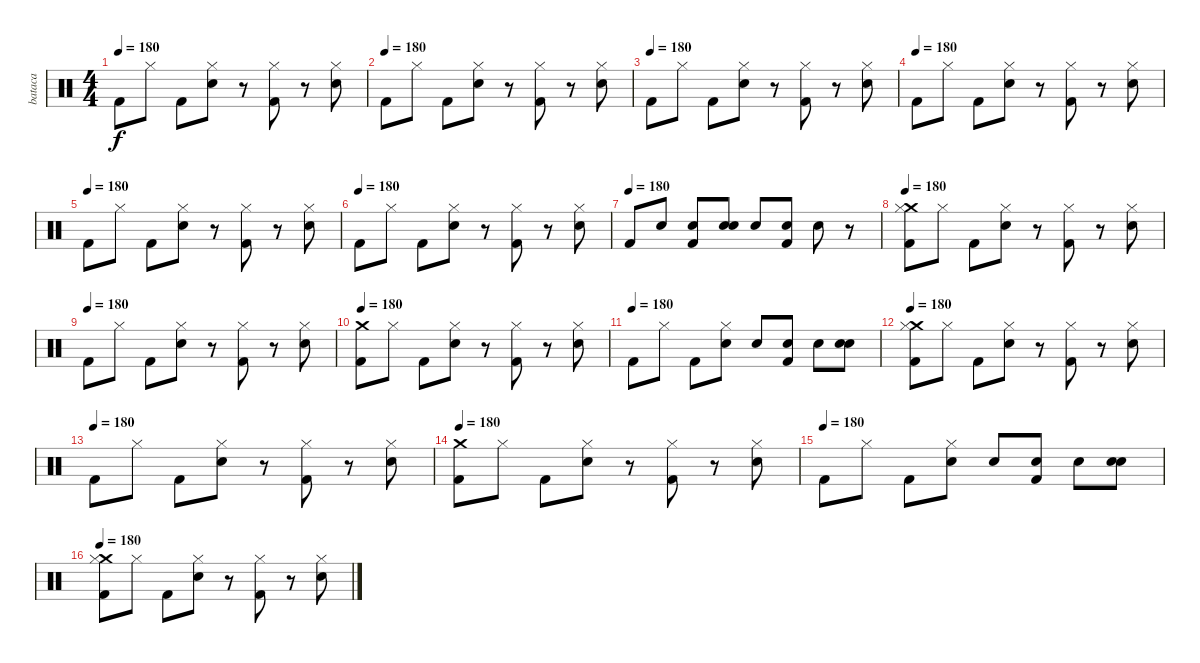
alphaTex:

\track ("bataca" "bataca") {instrument percussion}
\staff {score}
\articulation defaults
\ts (4 4)
\tempo 180
\clef neutral
\ks c "Kick (hit) 2".8{dy f} "Hi-Hat (closed)".8 "Kick (hit) 2".8
("Hi-Hat (closed)" "Snare (hit) 2").8 r.8 ("Hi-Hat (closed)" "Kick (hit) 2").8 r.8 ("Hi-Hat (closed)" "Snare (hit) 2").8 |
\tempo (180)
"Kick (hit) 2".8 "Hi-Hat (closed)".8 "Kick (hit) 2".8 ("Hi-Hat (closed)" "Snare (hit) 2").8 r.8 ("Hi-Hat (closed)" "Kick (hit) 2").8 r.8 ("Hi-Hat (closed)" "Snare (hit) 2").8 |
\tempo (180)
"Kick (hit) 2".8 "Hi-Hat (closed)".8 "Kick (hit) 2".8 ("Hi-Hat (closed)" "Snare (hit) 2").8 r.8 ("Hi-Hat (closed)" "Kick (hit) 2").8 r.8 ("Hi-Hat (closed)" "Snare (hit) 2").8 |
\tempo (180)
"Kick (hit) 2".8 "Hi-Hat (closed)".8 "Kick (hit) 2".8 ("Hi-Hat (closed)" "Snare (hit) 2").8 r.8 ("Hi-Hat (closed)" "Kick (hit) 2").8 r.8 ("Hi-Hat (closed)" "Snare (hit) 2").8 |
\tempo (180)
"Kick (hit) 2".8 "Hi-Hat (closed)".8 "Kick (hit) 2".8 ("Hi-Hat (closed)" "Snare (hit) 2").8 r.8 ("Hi-Hat (closed)" "Kick (hit) 2").8 r.8 ("Hi-Hat (closed)" "Snare (hit) 2").8 |
\tempo (180)
"Kick (hit) 2".8 "Hi-Hat (closed)".8 "Kick (hit) 2".8 ("Hi-Hat (closed)" "Snare (hit) 2").8 r.8 ("Hi-Hat (closed)" "Kick (hit) 2").8 r.8 ("Hi-Hat (closed)" "Snare (hit) 2").8 |
\tempo (180)
"Kick (hit) 2".8 "Snare (hit) 2".8 ("Snare (hit) 2" "Kick (hit) 2").8 ("Snare (hit) 2" "Snare (hit) 2").8 "Snare (hit) 2".8 ("Snare (hit) 2" "Kick (hit) 2").8 "Snare (hit) 2".8 r.8 |
\tempo 180
("Crash medium (hit)" "Hi-Hat (closed)" "Kick (hit) 2").8 "Hi-Hat (closed)".8 "Kick (hit) 2".8 ("Hi-Hat (closed)" "Snare (hit) 2").8 r.8 ("Hi-Hat (closed)" "Kick (hit) 2").8 r.8 ("Hi-Hat (closed)" "Snare (hit) 2").8 |
\tempo (180)
"Kick (hit) 2".8 "Hi-Hat (closed)".8 "Kick (hit) 2".8 ("Hi-Hat (closed)" "Snare (hit) 2").8 r.8 ("Hi-Hat (closed)" "Kick (hit) 2").8 r.8 ("Hi-Hat (closed)" "Snare (hit) 2").8 |
\tempo 180
("Crash medium (hit)" "Kick (hit) 2").8 "Hi-Hat (closed)".8 "Kick (hit) 2".8 ("Hi-Hat (closed)" "Snare (hit) 2").8 r.8 ("Hi-Hat (closed)" "Kick (hit) 2").8 r.8 ("Hi-Hat (closed)" "Snare (hit) 2").8 |
\tempo (180)
"Kick (hit) 2".8 "Hi-Hat (closed)".8 "Kick (hit) 2".8 ("Hi-Hat (closed)" "Snare (hit) 2").8 "Snare (hit) 2".8 ("Snare (hit) 2" "Kick (hit) 2").8 "Snare (hit) 2".8 ("Snare (hit) 2" "Snare (hit) 2").8 |
\tempo 180
("Crash medium (hit)" "Hi-Hat (closed)" "Kick (hit) 2").8 "Hi-Hat (closed)".8 "Kick (hit) 2".8 ("Hi-Hat (closed)" "Snare (hit) 2").8 r.8 ("Hi-Hat (closed)" "Kick (hit) 2").8 r.8 ("Hi-Hat (closed)" "Snare (hit) 2").8 |
\tempo (180)
"Kick (hit) 2".8 "Hi-Hat (closed)".8 "Kick (hit) 2".8 ("Hi-Hat (closed)" "Snare (hit) 2").8 r.8 ("Hi-Hat (closed)" "Kick (hit) 2").8 r.8 ("Hi-Hat (closed)" "Snare (hit) 2").8 |
\tempo 180
("Crash medium (hit)" "Kick (hit) 2").8 "Hi-Hat (closed)".8 "Kick (hit) 2".8 ("Hi-Hat (closed)" "Snare (hit) 2").8 r.8 ("Hi-Hat (closed)" "Kick (hit) 2").8 r.8 ("Hi-Hat (closed)" "Snare (hit) 2").8 |
\tempo (180)
"Kick (hit) 2".8 "Hi-Hat (closed)".8 "Kick (hit) 2".8 ("Hi-Hat (closed)" "Snare (hit) 2").8 "Snare (hit) 2".8 ("Snare (hit) 2" "Kick (hit) 2").8 "Snare (hit) 2".8 ("Snare (hit) 2" "Snare (hit) 2").8 |
\tempo 180
("Crash medium (hit)" "Hi-Hat (closed)" "Kick (hit) 2").8 "Hi-Hat (closed)".8 "Kick (hit) 2".8 ("Hi-Hat (closed)" "Snare (hit) 2").8 r.8 ("Hi-Hat (closed)" "Kick (hit) 2").8 r.8 ("Hi-Hat (closed)" "Snare (hit) 2").8
